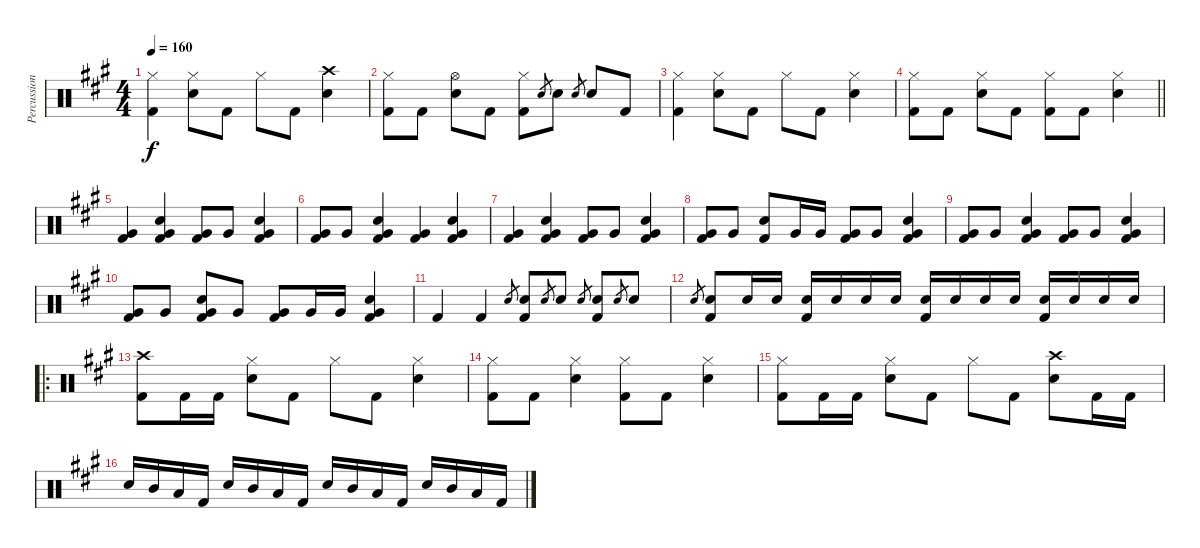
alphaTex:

\track ("Percussions" "Percussion") {instrument percussion}
\staff {score}
\articulation defaults
\ts (4 4)
\tempo 160
\clef neutral
\ks a
("Hi-Hat (closed)" "Kick (hit) 2").4{dy f} ("Hi-Hat (closed)" "Snare (hit) 2").8 "Kick (hit) 2".8 "Hi-Hat (closed)".8 "Kick (hit) 2".8 ("Snare (hit) 2" "Crash high (hit)").4 |
("Hi-Hat (closed)" "Kick (hit) 2").8 "Kick (hit) 2".8 ("Hi-Hat (open)" "Snare (hit) 2").8 "Kick (hit) 2".8 ("Hi-Hat (closed)" "Kick (hit) 2").8 "Snare (hit) 2".8{gr} "Snare (hit) 2".8 "Snare (hit) 2".8{gr} "Snare (hit) 2".8 "Kick (hit) 2".8 |
("Hi-Hat (closed)" "Kick (hit) 2").4 ("Hi-Hat (closed)" "Snare (hit) 2").8 "Kick (hit) 2".8 "Hi-Hat (closed)".8 "Kick (hit) 2".8 ("Hi-Hat (closed)" "Snare (hit) 2").4 |
\barLineRight lightlight
("Hi-Hat (closed)" "Kick (hit) 2").8 "Kick (hit) 2".8 ("Hi-Hat (closed)" "Snare (hit) 2").8 "Kick (hit) 2".8 ("Hi-Hat (closed)" "Kick (hit) 2").8 "Kick (hit) 2".8 ("Hi-Hat (closed)" "Snare (hit) 2").4 |
("Kick (hit) 2" "Very Low Tom (hit)").4 ("Snare (hit) 2" "Kick (hit) 2" "Very Low Tom (hit)").4 ("Kick (hit) 2" "Very Low Tom (hit)").8 "Very Low Tom (hit)".8 ("Snare (hit) 2" "Kick (hit) 2" "Very Low Tom (hit)").4 |
("Kick (hit) 2" "Very Low Tom (hit)").8 "Very Low Tom (hit)".8 ("Snare (hit) 2" "Kick (hit) 2" "Very Low Tom (hit)").4 ("Kick (hit) 2" "Very Low Tom (hit)").4 ("Snare (hit) 2" "Kick (hit) 2" "Very Low Tom (hit)").4 |
("Kick (hit) 2" "Very Low Tom (hit)").4 ("Snare (hit) 2" "Kick (hit) 2" "Very Low Tom (hit)").4 ("Kick (hit) 2" "Very Low Tom (hit)").8 "Very Low Tom (hit)".8 ("Snare (hit) 2" "Kick (hit) 2" "Very Low Tom (hit)").4 |
("Kick (hit) 2" "Very Low Tom (hit)").8 "Very Low Tom (hit)".8 ("Snare (hit) 2" "Kick (hit) 2").8 "Very Low Tom (hit)".16 "Very Low Tom (hit)".16 ("Kick (hit) 2" "Very Low Tom (hit)").8 "Very Low Tom (hit)".8 ("Snare (hit) 2" "Kick (hit) 2" "Very Low Tom (hit)").4 |
("Kick (hit) 2" "Very Low Tom (hit)").8 "Very Low Tom (hit)".8 ("Snare (hit) 2" "Kick (hit) 2" "Very Low Tom (hit)").4 ("Kick (hit) 2" "Very Low Tom (hit)").8 "Very Low Tom (hit)".8 ("Snare (hit) 2" "Kick (hit) 2" "Very Low Tom (hit)").4 |
("Kick (hit) 2" "Very Low Tom (hit)").8 "Very Low Tom (hit)".8 ("Snare (hit) 2" "Kick (hit) 2" "Very Low Tom (hit)").8 "Very Low Tom (hit)".8 ("Kick (hit) 2" "Very Low Tom (hit)").8 "Very Low Tom (hit)".16 "Very Low Tom (hit)".16 ("Snare (hit) 2" "Kick (hit) 2" "Very Low Tom (hit)").4 |
"Kick (hit) 2".4 "Kick (hit) 2".4 "Snare (hit) 2".8{gr} ("Snare (hit) 2" "Kick (hit) 2").8 "Snare (hit) 2".8{gr} "Snare (hit) 2".8 "Snare (hit) 2".8{gr} ("Snare (hit) 2" "Kick (hit) 2").8 "Snare (hit) 2".8{gr} "Snare (hit) 2".8 |
"Snare (hit) 2".8{gr} ("Snare (hit) 2" "Kick (hit) 2").8 "Snare (hit) 2".16 "Snare (hit) 2".16 ("Snare (hit) 2" "Kick (hit) 2").16 "Snare (hit) 2".16 "Snare (hit) 2".16 "Snare (hit) 2".16 ("Snare (hit) 2" "Kick (hit) 2").16 "Snare (hit) 2".16 "Snare (hit) 2".16 "Snare (hit) 2".16 ("Snare (hit) 2" "Kick (hit) 2").16 "Snare (hit) 2".16 "Snare (hit) 2".16 "Snare (hit) 2".16 |
\ro
("Kick (hit) 2" "Crash high (hit)").8 "Kick (hit) 2".16 "Kick (hit) 2".16 ("Hi-Hat (closed)" "Snare (hit) 2").8 "Kick (hit) 2".8 "Hi-Hat (closed)".8 "Kick (hit) 2".8 ("Hi-Hat (closed)" "Snare (hit) 2").4 |
("Hi-Hat (closed)" "Kick (hit) 2").8 "Kick (hit) 2".8 ("Hi-Hat (closed)" "Snare (hit) 2").4 ("Hi-Hat (closed)" "Kick (hit) 2").8 "Kick (hit) 2".8 ("Hi-Hat (closed)" "Snare (hit) 2").4 |
("Hi-Hat (closed)" "Kick (hit) 2").8 "Kick (hit) 2".16 "Kick (hit) 2".16 ("Hi-Hat (closed)" "Snare (hit) 2").8 "Kick (hit) 2".8 "Hi-Hat (closed)".8 "Kick (hit) 2".8 ("Snare (hit) 2" "Crash high (hit)").8 "Kick (hit) 2".16 "Kick (hit) 2".16 |
"Snare (hit) 2".16 "Mid Tom (hit)".16 "Low Tom (hit)".16 "Kick (hit) 2".16 "Snare (hit) 2".16 "Mid Tom (hit)".16 "Low Tom (hit)".16 "Kick (hit) 2".16 "Snare (hit) 2".16 "Mid Tom (hit)".16 "Low Tom (hit)".16 "Kick (hit) 2".16 "Snare (hit) 2".16 "Mid Tom (hit)".16 "Low Tom (hit)".16 "Kick (hit) 2".16
